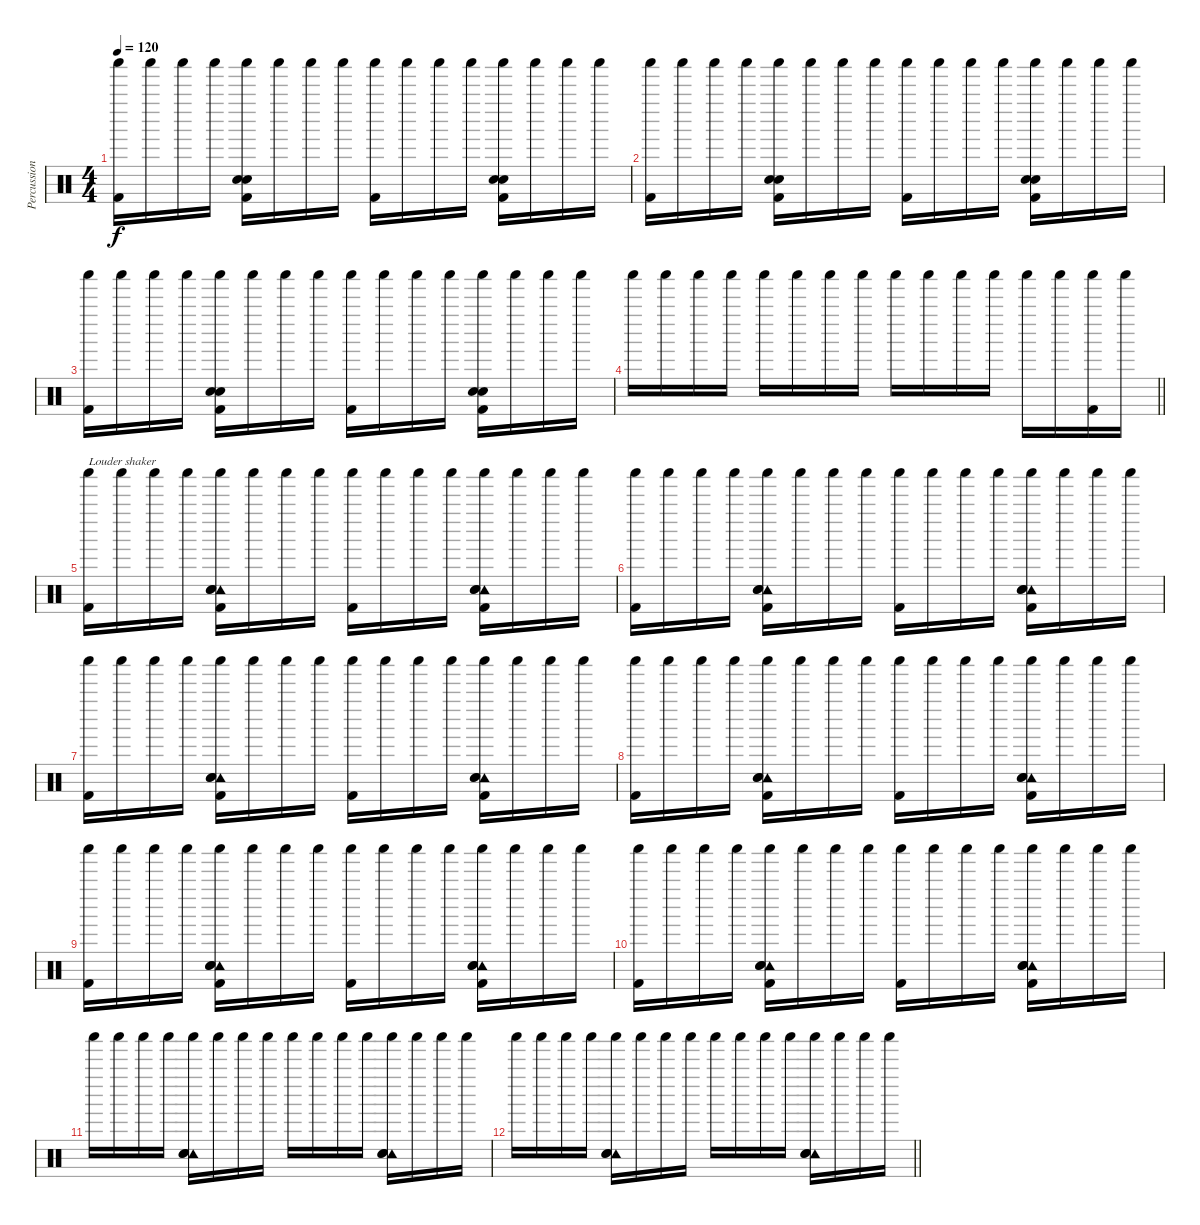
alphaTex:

\track ("Percussion" "Percussion") {instrument percussion}
\staff {score}
\articulation defaults
\ts (4 4)
\tempo 120
\clef neutral
\ks c
("Shaker (hit)" "Kick (hit) 2").16{dy f} "Shaker (hit)".16 "Shaker (hit)".16 "Shaker (hit)".16 ("Shaker (hit)" "Hand Clap (hit)" "Electric Snare (hit)" "Kick (hit) 2").16 "Shaker (hit)".16 "Shaker (hit)".16 "Shaker (hit)".16 ("Shaker (hit)" "Kick (hit) 2").16 "Shaker (hit)".16 "Shaker (hit)".16 "Shaker (hit)".16 ("Shaker (hit)" "Hand Clap (hit)" "Electric Snare (hit)" "Kick (hit) 2").16 "Shaker (hit)".16 "Shaker (hit)".16 "Shaker (hit)".16 |
("Shaker (hit)" "Kick (hit) 2").16 "Shaker (hit)".16 "Shaker (hit)".16 "Shaker (hit)".16 ("Shaker (hit)" "Hand Clap (hit)" "Electric Snare (hit)" "Kick (hit) 2").16 "Shaker (hit)".16 "Shaker (hit)".16 "Shaker (hit)".16 ("Shaker (hit)" "Kick (hit) 2").16 "Shaker (hit)".16 "Shaker (hit)".16 "Shaker (hit)".16 ("Shaker (hit)" "Hand Clap (hit)" "Electric Snare (hit)" "Kick (hit) 2").16 "Shaker (hit)".16 "Shaker (hit)".16 "Shaker (hit)".16 |
("Shaker (hit)" "Kick (hit) 2").16 "Shaker (hit)".16 "Shaker (hit)".16 "Shaker (hit)".16 ("Shaker (hit)" "Hand Clap (hit)" "Electric Snare (hit)" "Kick (hit) 2").16 "Shaker (hit)".16 "Shaker (hit)".16 "Shaker (hit)".16 ("Shaker (hit)" "Kick (hit) 2").16 "Shaker (hit)".16 "Shaker (hit)".16 "Shaker (hit)".16 ("Shaker (hit)" "Hand Clap (hit)" "Electric Snare (hit)" "Kick (hit) 2").16 "Shaker (hit)".16 "Shaker (hit)".16 "Shaker (hit)".16 |
\barLineRight lightlight "Shaker (hit)".16 "Shaker (hit)".16 "Shaker (hit)".16 "Shaker (hit)".16 "Shaker (hit)".16 "Shaker (hit)".16 "Shaker (hit)".16 "Shaker (hit)".16 "Shaker (hit)".16 "Shaker (hit)".16 "Shaker (hit)".16 "Shaker (hit)".16 "Shaker (hit)".16 "Shaker (hit)".16
("Shaker (hit)" "Kick (hit) 2").16 "Shaker (hit)".16 |
("Shaker (hit)" "Kick (hit) 2").16{txt "Louder shaker"} "Shaker (hit)".16 "Shaker (hit)".16 "Shaker (hit)".16 ("Shaker (hit)" "Tambourine (hit)" "Hand Clap (hit)" "Electric Snare (hit)" "Kick (hit) 2").16 "Shaker (hit)".16 "Shaker (hit)".16 "Shaker (hit)".16 ("Shaker (hit)" "Kick (hit) 2").16 "Shaker (hit)".16 "Shaker (hit)".16 "Shaker (hit)".16 ("Shaker (hit)" "Tambourine (hit)" "Hand Clap (hit)" "Electric Snare (hit)" "Kick (hit) 2").16 "Shaker (hit)".16 "Shaker (hit)".16 "Shaker (hit)".16 |
("Shaker (hit)" "Kick (hit) 2").16 "Shaker (hit)".16 "Shaker (hit)".16 "Shaker (hit)".16 ("Shaker (hit)" "Tambourine (hit)" "Hand Clap (hit)" "Electric Snare (hit)" "Kick (hit) 2").16 "Shaker (hit)".16 "Shaker (hit)".16 "Shaker (hit)".16 ("Shaker (hit)" "Kick (hit) 2").16 "Shaker (hit)".16 "Shaker (hit)".16 "Shaker (hit)".16 ("Shaker (hit)" "Tambourine (hit)" "Hand Clap (hit)" "Electric Snare (hit)" "Kick (hit) 2").16 "Shaker (hit)".16 "Shaker (hit)".16 "Shaker (hit)".16 |
("Shaker (hit)" "Kick (hit) 2").16 "Shaker (hit)".16 "Shaker (hit)".16 "Shaker (hit)".16 ("Shaker (hit)" "Tambourine (hit)" "Hand Clap (hit)" "Electric Snare (hit)" "Kick (hit) 2").16 "Shaker (hit)".16 "Shaker (hit)".16 "Shaker (hit)".16 ("Shaker (hit)" "Kick (hit) 2").16 "Shaker (hit)".16 "Shaker (hit)".16 "Shaker (hit)".16 ("Shaker (hit)" "Tambourine (hit)" "Hand Clap (hit)" "Electric Snare (hit)" "Kick (hit) 2").16 "Shaker (hit)".16 "Shaker (hit)".16 "Shaker (hit)".16 |
("Shaker (hit)" "Kick (hit) 2").16 "Shaker (hit)".16 "Shaker (hit)".16 "Shaker (hit)".16 ("Shaker (hit)" "Tambourine (hit)" "Hand Clap (hit)" "Electric Snare (hit)" "Kick (hit) 2").16 "Shaker (hit)".16 "Shaker (hit)".16 "Shaker (hit)".16 ("Shaker (hit)" "Kick (hit) 2").16 "Shaker (hit)".16 "Shaker (hit)".16 "Shaker (hit)".16 ("Shaker (hit)" "Tambourine (hit)" "Hand Clap (hit)" "Electric Snare (hit)" "Kick (hit) 2").16 "Shaker (hit)".16 "Shaker (hit)".16 "Shaker (hit)".16 |
("Shaker (hit)" "Kick (hit) 2").16 "Shaker (hit)".16 "Shaker (hit)".16 "Shaker (hit)".16 ("Shaker (hit)" "Tambourine (hit)" "Hand Clap (hit)" "Electric Snare (hit)" "Kick (hit) 2").16 "Shaker (hit)".16 "Shaker (hit)".16 "Shaker (hit)".16 ("Shaker (hit)" "Kick (hit) 2").16 "Shaker (hit)".16 "Shaker (hit)".16 "Shaker (hit)".16 ("Shaker (hit)" "Tambourine (hit)" "Hand Clap (hit)" "Electric Snare (hit)" "Kick (hit) 2").16 "Shaker (hit)".16 "Shaker (hit)".16 "Shaker (hit)".16 |
("Shaker (hit)" "Kick (hit) 2").16 "Shaker (hit)".16 "Shaker (hit)".16 "Shaker (hit)".16 ("Shaker (hit)" "Tambourine (hit)" "Hand Clap (hit)" "Electric Snare (hit)" "Kick (hit) 2").16 "Shaker (hit)".16 "Shaker (hit)".16 "Shaker (hit)".16 ("Shaker (hit)" "Kick (hit) 2").16 "Shaker (hit)".16 "Shaker (hit)".16 "Shaker (hit)".16 ("Shaker (hit)" "Tambourine (hit)" "Hand Clap (hit)" "Electric Snare (hit)" "Kick (hit) 2").16 "Shaker (hit)".16 "Shaker (hit)".16 "Shaker (hit)".16 |
"Shaker (hit)".16 "Shaker (hit)".16 "Shaker (hit)".16 "Shaker (hit)".16 ("Shaker (hit)" "Tambourine (hit)" "Hand Clap (hit)" "Electric Snare (hit)").16 "Shaker (hit)".16 "Shaker (hit)".16 "Shaker (hit)".16 "Shaker (hit)".16 "Shaker (hit)".16 "Shaker (hit)".16 "Shaker (hit)".16 ("Shaker (hit)" "Tambourine (hit)" "Hand Clap (hit)" "Electric Snare (hit)").16 "Shaker (hit)".16 "Shaker (hit)".16 "Shaker (hit)".16 |
\barLineRight lightlight "Shaker (hit)".16 "Shaker (hit)".16 "Shaker (hit)".16 "Shaker (hit)".16
("Shaker (hit)" "Tambourine (hit)" "Hand Clap (hit)" "Electric Snare (hit)").16 "Shaker (hit)".16 "Shaker (hit)".16 "Shaker (hit)".16 "Shaker (hit)".16 "Shaker (hit)".16 "Shaker (hit)".16 "Shaker (hit)".16 ("Shaker (hit)" "Tambourine (hit)" "Hand Clap (hit)" "Electric Snare (hit)").16 "Shaker (hit)".16 "Shaker (hit)".16 "Shaker (hit)".16
